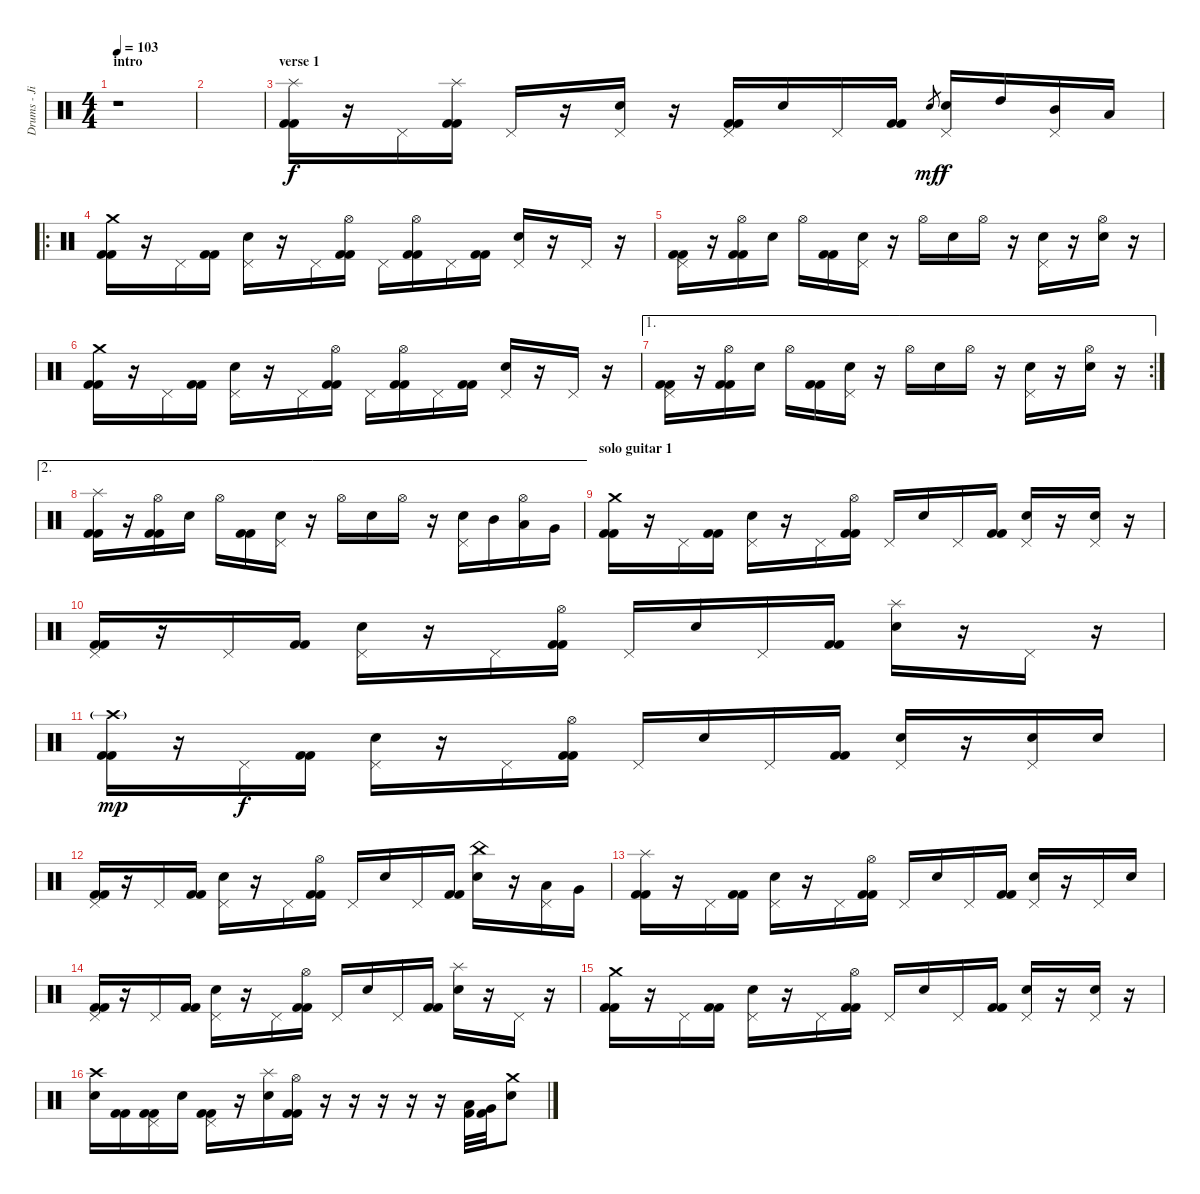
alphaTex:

\track ("Drums - Jimmy" "Drums - Ji") {instrument percussion}
\staff {score}
\articulation defaults
\ts (4 4)
\section ("" "intro")
\tempo 103
\clef neutral
\ks c
r.1{dy f} |
|
\section ("" "verse 1")
("Splash (hit)" "Kick (hit) 2" "Kick (hit) 2").16 r.16 "Pedal Hi-Hat (hit)".16 ("Splash (hit)" "Kick (hit) 2" "Kick (hit) 2").16 "Pedal Hi-Hat (hit)".16 r.16 ("Pedal Hi-Hat (hit)" "Electric Snare (hit)").16 r.16 ("Pedal Hi-Hat (hit)" "Kick (hit) 2" "Kick (hit) 2").16 "Electric Snare (hit)".16 "Pedal Hi-Hat (hit)".16 ("Kick (hit) 2" "Kick (hit) 2").16 "Electric Snare (hit)".8{gr dy mf} ("Pedal Hi-Hat (hit)" "Electric Snare (hit)").16{dy f} "High Tom (hit)".16 ("Pedal Hi-Hat (hit)" "Mid Tom (hit)").16 "Low Tom (hit)".16 |
\ro
("Crash medium (hit)" "Kick (hit) 2" "Kick (hit) 2").16 r.16 "Pedal Hi-Hat (hit)".16 ("Kick (hit) 2" "Kick (hit) 2").16 ("Pedal Hi-Hat (hit)" "Electric Snare (hit)").16 r.16 "Pedal Hi-Hat (hit)".16 ("Hi-Hat (open)" "Kick (hit) 2" "Kick (hit) 2").16 "Pedal Hi-Hat (hit)".16 ("Hi-Hat (open)" "Kick (hit) 2" "Kick (hit) 2").16 "Pedal Hi-Hat (hit)".16 ("Kick (hit) 2" "Kick (hit) 2").16 ("Pedal Hi-Hat (hit)" "Electric Snare (hit)").16 r.16 "Pedal Hi-Hat (hit)".16 r.16 |
("Pedal Hi-Hat (hit)" "Kick (hit) 2" "Kick (hit) 2").16 r.16 ("Hi-Hat (open)" "Kick (hit) 2" "Kick (hit) 2").16 "Electric Snare (hit)".16 "Hi-Hat (open)".16 ("Kick (hit) 2" "Kick (hit) 2").16 ("Pedal Hi-Hat (hit)" "Electric Snare (hit)").16 r.16 "Hi-Hat (open)".16 "Electric Snare (hit)".16 "Hi-Hat (open)".16 r.16 ("Pedal Hi-Hat (hit)" "Electric Snare (hit)").16 r.16 ("Hi-Hat (open)" "Electric Snare (hit)").16 r.16 |
("Crash medium (hit)" "Kick (hit) 2" "Kick (hit) 2").16 r.16 "Pedal Hi-Hat (hit)".16 ("Kick (hit) 2" "Kick (hit) 2").16 ("Pedal Hi-Hat (hit)" "Electric Snare (hit)").16 r.16 "Pedal Hi-Hat (hit)".16 ("Hi-Hat (open)" "Kick (hit) 2" "Kick (hit) 2").16 "Pedal Hi-Hat (hit)".16 ("Hi-Hat (open)" "Kick (hit) 2" "Kick (hit) 2").16 "Pedal Hi-Hat (hit)".16 ("Kick (hit) 2" "Kick (hit) 2").16 ("Pedal Hi-Hat (hit)" "Electric Snare (hit)").16 r.16 "Pedal Hi-Hat (hit)".16 r.16 |
\ae 1
\rc 2
("Pedal Hi-Hat (hit)" "Kick (hit) 2" "Kick (hit) 2").16 r.16 ("Hi-Hat (open)" "Kick (hit) 2" "Kick (hit) 2").16 "Electric Snare (hit)".16 "Hi-Hat (open)".16 ("Kick (hit) 2" "Kick (hit) 2").16 ("Pedal Hi-Hat (hit)" "Electric Snare (hit)").16 r.16 "Hi-Hat (open)".16 "Electric Snare (hit)".16 "Hi-Hat (open)".16 r.16 ("Pedal Hi-Hat (hit)" "Electric Snare (hit)").16 r.16 ("Hi-Hat (open)" "Electric Snare (hit)").16 r.16 |
\ae 2
("Splash (hit)" "Kick (hit) 2" "Kick (hit) 2").16 r.16 ("Hi-Hat (open)" "Kick (hit) 2" "Kick (hit) 2").16 "Electric Snare (hit)".16 "Hi-Hat (open)".16 ("Kick (hit) 2" "Kick (hit) 2").16 ("Pedal Hi-Hat (hit)" "Electric Snare (hit)").16 r.16 "Hi-Hat (open)".16 "Electric Snare (hit)".16 "Hi-Hat (open)".16 r.16 ("Pedal Hi-Hat (hit)" "Electric Snare (hit)").16 "Mid Tom (hit)".16 ("Hi-Hat (open)" "Low Tom (hit)").16 "Very Low Tom (hit)".16 |
\section ("" "solo guitar 1")
("Crash medium (hit)" "Kick (hit) 2" "Kick (hit) 2").16 r.16 "Pedal Hi-Hat (hit)".16 ("Kick (hit) 2" "Kick (hit) 2").16 ("Pedal Hi-Hat (hit)" "Electric Snare (hit)").16 r.16 "Pedal Hi-Hat (hit)".16 ("Hi-Hat (open)" "Kick (hit) 2" "Kick (hit) 2").16 "Pedal Hi-Hat (hit)".16 "Electric Snare (hit)".16 "Pedal Hi-Hat (hit)".16 ("Kick (hit) 2" "Kick (hit) 2").16 ("Pedal Hi-Hat (hit)" "Electric Snare (hit)").16 r.16 ("Pedal Hi-Hat (hit)" "Electric Snare (hit)").16 r.16 |
("Pedal Hi-Hat (hit)" "Kick (hit) 2" "Kick (hit) 2").16 r.16 "Pedal Hi-Hat (hit)".16 ("Kick (hit) 2" "Kick (hit) 2").16 ("Pedal Hi-Hat (hit)" "Electric Snare (hit)").16 r.16 "Pedal Hi-Hat (hit)".16 ("Hi-Hat (open)" "Kick (hit) 2" "Kick (hit) 2").16 "Pedal Hi-Hat (hit)".16 "Electric Snare (hit)".16 "Pedal Hi-Hat (hit)".16 ("Kick (hit) 2" "Kick (hit) 2").16 ("Splash (hit)" "Electric Snare (hit)").16 r.16 "Pedal Hi-Hat (hit)".16 r.16 |
("Crash high (hit)"{g} "Kick (hit) 2" "Kick (hit) 2").16{dy mp} r.16 "Pedal Hi-Hat (hit)".16{dy f} ("Kick (hit) 2" "Kick (hit) 2").16 ("Pedal Hi-Hat (hit)" "Electric Snare (hit)").16 r.16 "Pedal Hi-Hat (hit)".16 ("Hi-Hat (open)" "Kick (hit) 2" "Kick (hit) 2").16 "Pedal Hi-Hat (hit)".16 "Electric Snare (hit)".16 "Pedal Hi-Hat (hit)".16 ("Kick (hit) 2" "Kick (hit) 2").16 ("Pedal Hi-Hat (hit)" "Electric Snare (hit)").16 r.16 ("Pedal Hi-Hat (hit)" "Electric Snare (hit)").16 "Electric Snare (hit)".16 |
("Pedal Hi-Hat (hit)" "Kick (hit) 2" "Kick (hit) 2").16 r.16 "Pedal Hi-Hat (hit)".16 ("Kick (hit) 2" "Kick (hit) 2").16 ("Pedal Hi-Hat (hit)" "Electric Snare (hit)").16 r.16 "Pedal Hi-Hat (hit)".16 ("Hi-Hat (open)" "Kick (hit) 2" "Kick (hit) 2").16 "Pedal Hi-Hat (hit)".16 "Electric Snare (hit)".16 "Pedal Hi-Hat (hit)".16 ("Kick (hit) 2" "Kick (hit) 2").16 ("China (hit)" "Electric Snare (hit)").16 r.16 ("Pedal Hi-Hat (hit)" "Low Tom (hit)").16 "Very Low Tom (hit)".16 |
("Splash (hit)" "Kick (hit) 2" "Kick (hit) 2").16 r.16 "Pedal Hi-Hat (hit)".16 ("Kick (hit) 2" "Kick (hit) 2").16 ("Pedal Hi-Hat (hit)" "Electric Snare (hit)").16 r.16 "Pedal Hi-Hat (hit)".16 ("Hi-Hat (open)" "Kick (hit) 2" "Kick (hit) 2").16 "Pedal Hi-Hat (hit)".16 "Electric Snare (hit)".16 "Pedal Hi-Hat (hit)".16 ("Kick (hit) 2" "Kick (hit) 2").16 ("Pedal Hi-Hat (hit)" "Electric Snare (hit)").16 r.16 "Pedal Hi-Hat (hit)".16 "Electric Snare (hit)".16 |
("Pedal Hi-Hat (hit)" "Kick (hit) 2" "Kick (hit) 2").16 r.16 "Pedal Hi-Hat (hit)".16 ("Kick (hit) 2" "Kick (hit) 2").16 ("Pedal Hi-Hat (hit)" "Electric Snare (hit)").16 r.16 "Pedal Hi-Hat (hit)".16 ("Hi-Hat (open)" "Kick (hit) 2" "Kick (hit) 2").16 "Pedal Hi-Hat (hit)".16 "Electric Snare (hit)".16 "Pedal Hi-Hat (hit)".16 ("Kick (hit) 2" "Kick (hit) 2").16 ("Splash (hit)" "Electric Snare (hit)").16 r.16 "Pedal Hi-Hat (hit)".16 r.16 |
("Crash medium (hit)" "Kick (hit) 2" "Kick (hit) 2").16 r.16 "Pedal Hi-Hat (hit)".16 ("Kick (hit) 2" "Kick (hit) 2").16 ("Pedal Hi-Hat (hit)" "Electric Snare (hit)").16 r.16 "Pedal Hi-Hat (hit)".16 ("Hi-Hat (open)" "Kick (hit) 2" "Kick (hit) 2").16 "Pedal Hi-Hat (hit)".16 "Electric Snare (hit)".16 "Pedal Hi-Hat (hit)".16 ("Kick (hit) 2" "Kick (hit) 2").16 ("Pedal Hi-Hat (hit)" "Electric Snare (hit)").16 r.16 ("Pedal Hi-Hat (hit)" "Electric Snare (hit)").16 r.16 |
("Crash high (hit)" "Electric Snare (hit)").16 ("Kick (hit) 2" "Kick (hit) 2").16 ("Pedal Hi-Hat (hit)" "Kick (hit) 2" "Kick (hit) 2").16 "Electric Snare (hit)".16 ("Pedal Hi-Hat (hit)" "Kick (hit) 2" "Kick (hit) 2").16 r.16 ("Splash (hit)" "Electric Snare (hit)").16 ("Hi-Hat (open)" "Kick (hit) 2" "Kick (hit) 2").16 r.16 r.16 r.16 r.16 r.16 ("Low Tom (hit)" "Kick (hit) 2").32 ("Very Low Tom (hit)" "Kick (hit) 2").32 ("Crash medium (hit)" "Electric Snare (hit)").8
